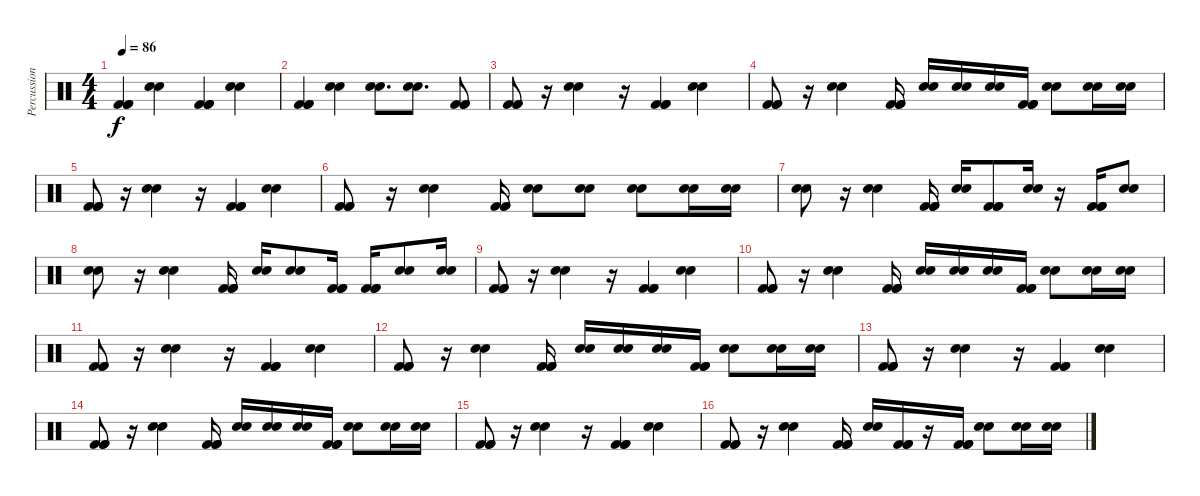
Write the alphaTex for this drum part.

\track ("Percussions" "Percussion") {instrument percussion}
\staff {score}
\articulation defaults
\ts (4 4)
\tempo 86
\clef neutral
\ks c
("Kick (hit) 2" "Kick (hit) 2" "Kick (hit) 2").4{dy f} ("Snare (hit) 2" "Snare (hit) 2").4 ("Kick (hit) 2" "Kick (hit) 2" "Kick (hit) 2").4 ("Snare (hit) 2" "Snare (hit) 2").4 |
("Kick (hit) 2" "Kick (hit) 2" "Kick (hit) 2").4 ("Snare (hit) 2" "Snare (hit) 2").4 ("Snare (hit) 2" "Snare (hit) 2").8{d} ("Snare (hit) 2" "Snare (hit) 2").8{d} ("Kick (hit) 2" "Kick (hit) 2" "Kick (hit) 2").8 |
("Kick (hit) 2" "Kick (hit) 2" "Kick (hit) 2").8 r.16 ("Snare (hit) 2" "Snare (hit) 2").4 r.16 ("Kick (hit) 2" "Kick (hit) 2" "Kick (hit) 2").4 ("Snare (hit) 2" "Snare (hit) 2").4 |
("Kick (hit) 2" "Kick (hit) 2" "Kick (hit) 2").8 r.16 ("Snare (hit) 2" "Snare (hit) 2").4 ("Kick (hit) 2" "Kick (hit) 2" "Kick (hit) 2").16 ("Snare (hit) 2" "Snare (hit) 2").16 ("Snare (hit) 2" "Snare (hit) 2").16 ("Snare (hit) 2" "Snare (hit) 2").16 ("Kick (hit) 2" "Kick (hit) 2" "Kick (hit) 2").16 ("Snare (hit) 2" "Snare (hit) 2").8 ("Snare (hit) 2" "Snare (hit) 2").16 ("Snare (hit) 2" "Snare (hit) 2").16 |
("Kick (hit) 2" "Kick (hit) 2" "Kick (hit) 2").8 r.16 ("Snare (hit) 2" "Snare (hit) 2").4 r.16 ("Kick (hit) 2" "Kick (hit) 2" "Kick (hit) 2").4 ("Snare (hit) 2" "Snare (hit) 2").4 |
("Kick (hit) 2" "Kick (hit) 2" "Kick (hit) 2").8 r.16 ("Snare (hit) 2" "Snare (hit) 2").4 ("Kick (hit) 2" "Kick (hit) 2" "Kick (hit) 2").16 ("Snare (hit) 2" "Snare (hit) 2").8 ("Snare (hit) 2" "Snare (hit) 2").8 ("Snare (hit) 2" "Snare (hit) 2").8 ("Snare (hit) 2" "Snare (hit) 2").16 ("Snare (hit) 2" "Snare (hit) 2").16 |
("Snare (hit) 2" "Snare (hit) 2").8 r.16 ("Snare (hit) 2" "Snare (hit) 2").4 ("Kick (hit) 2" "Kick (hit) 2" "Kick (hit) 2").16 ("Snare (hit) 2" "Snare (hit) 2").16 ("Kick (hit) 2" "Kick (hit) 2" "Kick (hit) 2").8 ("Snare (hit) 2" "Snare (hit) 2").16 r.16 ("Kick (hit) 2" "Kick (hit) 2" "Kick (hit) 2").16 ("Snare (hit) 2" "Snare (hit) 2").8 |
("Snare (hit) 2" "Snare (hit) 2").8 r.16 ("Snare (hit) 2" "Snare (hit) 2").4 ("Kick (hit) 2" "Kick (hit) 2" "Kick (hit) 2").16 ("Snare (hit) 2" "Snare (hit) 2").16 ("Snare (hit) 2" "Snare (hit) 2").8 ("Kick (hit) 2" "Kick (hit) 2" "Kick (hit) 2").16 ("Kick (hit) 2" "Kick (hit) 2" "Kick (hit) 2").16 ("Snare (hit) 2" "Snare (hit) 2").8 ("Snare (hit) 2" "Snare (hit) 2").16 |
("Kick (hit) 2" "Kick (hit) 2" "Kick (hit) 2").8 r.16 ("Snare (hit) 2" "Snare (hit) 2").4 r.16 ("Kick (hit) 2" "Kick (hit) 2" "Kick (hit) 2").4 ("Snare (hit) 2" "Snare (hit) 2").4 |
("Kick (hit) 2" "Kick (hit) 2" "Kick (hit) 2").8 r.16 ("Snare (hit) 2" "Snare (hit) 2").4 ("Kick (hit) 2" "Kick (hit) 2" "Kick (hit) 2").16 ("Snare (hit) 2" "Snare (hit) 2").16 ("Snare (hit) 2" "Snare (hit) 2").16 ("Snare (hit) 2" "Snare (hit) 2").16 ("Kick (hit) 2" "Kick (hit) 2" "Kick (hit) 2").16 ("Snare (hit) 2" "Snare (hit) 2").8 ("Snare (hit) 2" "Snare (hit) 2").16 ("Snare (hit) 2" "Snare (hit) 2").16 |
("Kick (hit) 2" "Kick (hit) 2" "Kick (hit) 2").8 r.16 ("Snare (hit) 2" "Snare (hit) 2").4 r.16 ("Kick (hit) 2" "Kick (hit) 2" "Kick (hit) 2").4 ("Snare (hit) 2" "Snare (hit) 2").4 |
("Kick (hit) 2" "Kick (hit) 2" "Kick (hit) 2").8 r.16 ("Snare (hit) 2" "Snare (hit) 2").4 ("Kick (hit) 2" "Kick (hit) 2" "Kick (hit) 2").16 ("Snare (hit) 2" "Snare (hit) 2").16 ("Snare (hit) 2" "Snare (hit) 2").16 ("Snare (hit) 2" "Snare (hit) 2").16 ("Kick (hit) 2" "Kick (hit) 2" "Kick (hit) 2").16 ("Snare (hit) 2" "Snare (hit) 2").8 ("Snare (hit) 2" "Snare (hit) 2").16 ("Snare (hit) 2" "Snare (hit) 2").16 |
("Kick (hit) 2" "Kick (hit) 2" "Kick (hit) 2").8 r.16 ("Snare (hit) 2" "Snare (hit) 2").4 r.16 ("Kick (hit) 2" "Kick (hit) 2" "Kick (hit) 2").4 ("Snare (hit) 2" "Snare (hit) 2").4 |
("Kick (hit) 2" "Kick (hit) 2" "Kick (hit) 2").8 r.16 ("Snare (hit) 2" "Snare (hit) 2").4 ("Kick (hit) 2" "Kick (hit) 2" "Kick (hit) 2").16 ("Snare (hit) 2" "Snare (hit) 2").16 ("Snare (hit) 2" "Snare (hit) 2").16 ("Snare (hit) 2" "Snare (hit) 2").16 ("Kick (hit) 2" "Kick (hit) 2" "Kick (hit) 2").16 ("Snare (hit) 2" "Snare (hit) 2").8 ("Snare (hit) 2" "Snare (hit) 2").16 ("Snare (hit) 2" "Snare (hit) 2").16 |
("Kick (hit) 2" "Kick (hit) 2" "Kick (hit) 2").8 r.16 ("Snare (hit) 2" "Snare (hit) 2").4 r.16 ("Kick (hit) 2" "Kick (hit) 2" "Kick (hit) 2").4 ("Snare (hit) 2" "Snare (hit) 2").4 |
("Kick (hit) 2" "Kick (hit) 2" "Kick (hit) 2").8 r.16 ("Snare (hit) 2" "Snare (hit) 2").4 ("Kick (hit) 2" "Kick (hit) 2" "Kick (hit) 2").16 ("Snare (hit) 2" "Snare (hit) 2").16 ("Kick (hit) 2" "Kick (hit) 2" "Kick (hit) 2").16 r.16 ("Kick (hit) 2" "Kick (hit) 2" "Kick (hit) 2").16 ("Snare (hit) 2" "Snare (hit) 2").8 ("Snare (hit) 2" "Snare (hit) 2").16 ("Snare (hit) 2" "Snare (hit) 2").16
